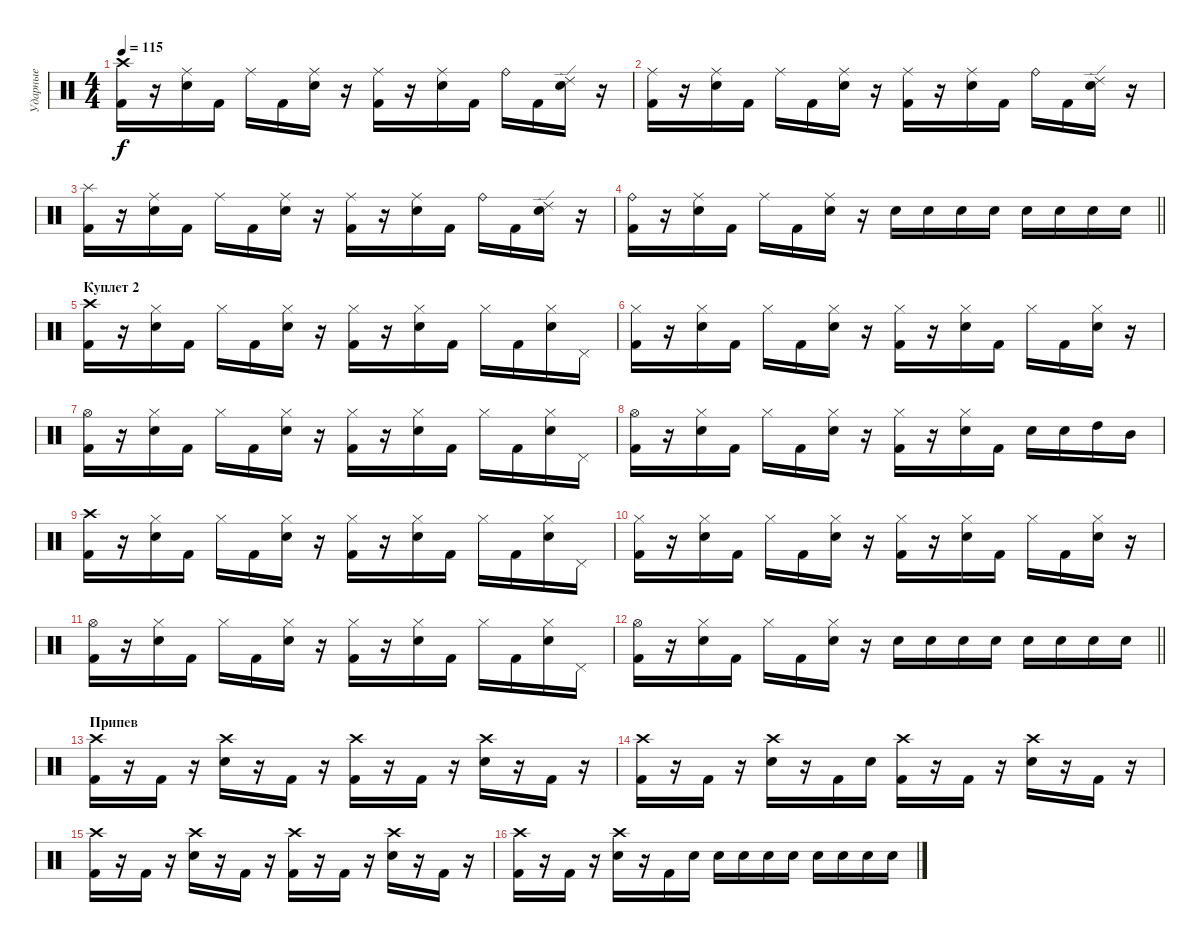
\track ("Ударные" "Ударные") {instrument percussion}
\staff {score}
\articulation defaults
\ts (4 4)
\tempo 115
\clef neutral
\ks c
("Kick (hit) 2" "Crash high (hit)").16{dy f} r.16 ("Electric Snare (hit)" "Ride (middle)").16 "Kick (hit) 2".16 "Ride (middle)".16 "Kick (hit) 2".16 ("Electric Snare (hit)" "Ride (middle)").16 r.16 ("Kick (hit) 2" "Ride (middle)").16 r.16 ("Electric Snare (hit)" "Ride (middle)").16 "Kick (hit) 2".16 "Ride (bell)".16 "Kick (hit) 2".16 ("Electric Snare (hit)" "Ride (edge) 2").16 r.16 |
("Kick (hit) 2" "Ride (middle)").16 r.16 ("Electric Snare (hit)" "Ride (middle)").16 "Kick (hit) 2".16 "Ride (middle)".16 "Kick (hit) 2".16 ("Electric Snare (hit)" "Ride (middle)").16 r.16 ("Kick (hit) 2" "Ride (middle)").16 r.16 ("Electric Snare (hit)" "Ride (middle)").16 "Kick (hit) 2".16 "Ride (bell)".16 "Kick (hit) 2".16 ("Electric Snare (hit)" "Ride (edge) 2").16 r.16 |
("Kick (hit) 2" "Splash (hit)").16 r.16 ("Electric Snare (hit)" "Ride (middle)").16 "Kick (hit) 2".16 "Ride (middle)".16 "Kick (hit) 2".16 ("Electric Snare (hit)" "Ride (middle)").16 r.16 ("Kick (hit) 2" "Ride (middle)").16 r.16 ("Electric Snare (hit)" "Ride (middle)").16 "Kick (hit) 2".16 "Ride (bell)".16 "Kick (hit) 2".16 ("Electric Snare (hit)" "Ride (edge) 2").16 r.16 |
\barLineRight lightlight
("Kick (hit) 2" "Ride (bell)").16 r.16 ("Electric Snare (hit)" "Ride (middle)").16 "Kick (hit) 2".16 "Ride (middle)".16 "Kick (hit) 2".16 ("Electric Snare (hit)" "Ride (middle)").16 r.16 "Electric Snare (hit)".16 "Electric Snare (hit)".16 "Electric Snare (hit)".16 "Electric Snare (hit)".16 "Electric Snare (hit)".16 "Electric Snare (hit)".16 "Electric Snare (hit)".16 "Electric Snare (hit)".16 |
\section ("" "Куплет 2")
("Kick (hit) 2" "Crash high (hit)").16 r.16 ("Electric Snare (hit)" "Hi-Hat (closed)").16 "Kick (hit) 2".16 "Hi-Hat (closed)".16 "Kick (hit) 2".16 ("Electric Snare (hit)" "Hi-Hat (closed)").16 r.16 ("Kick (hit) 2" "Hi-Hat (closed)").16 r.16 ("Electric Snare (hit)" "Hi-Hat (closed)").16 "Kick (hit) 2".16 "Hi-Hat (closed)".16 "Kick (hit) 2".16 ("Electric Snare (hit)" "Hi-Hat (closed)").16 "Pedal Hi-Hat (hit)".16 |
("Kick (hit) 2" "Hi-Hat (closed)").16 r.16 ("Electric Snare (hit)" "Hi-Hat (closed)").16 "Kick (hit) 2".16 "Hi-Hat (closed)".16 "Kick (hit) 2".16 ("Electric Snare (hit)" "Hi-Hat (closed)").16 r.16 ("Kick (hit) 2" "Hi-Hat (closed)").16 r.16 ("Electric Snare (hit)" "Hi-Hat (closed)").16 "Kick (hit) 2".16 "Hi-Hat (closed)".16 "Kick (hit) 2".16 ("Electric Snare (hit)" "Hi-Hat (closed)").16 r.16 |
("Kick (hit) 2" "Hi-Hat (open)").16 r.16 ("Electric Snare (hit)" "Hi-Hat (closed)").16 "Kick (hit) 2".16 "Hi-Hat (closed)".16 "Kick (hit) 2".16 ("Electric Snare (hit)" "Hi-Hat (closed)").16 r.16 ("Kick (hit) 2" "Hi-Hat (closed)").16 r.16 ("Electric Snare (hit)" "Hi-Hat (closed)").16 "Kick (hit) 2".16 "Hi-Hat (closed)".16 "Kick (hit) 2".16 ("Electric Snare (hit)" "Hi-Hat (closed)").16 "Pedal Hi-Hat (hit)".16 |
("Kick (hit) 2" "Hi-Hat (open)").16 r.16 ("Electric Snare (hit)" "Hi-Hat (closed)").16 "Kick (hit) 2".16 "Hi-Hat (closed)".16 "Kick (hit) 2".16 ("Electric Snare (hit)" "Hi-Hat (closed)").16 r.16 ("Kick (hit) 2" "Hi-Hat (closed)").16 r.16 ("Electric Snare (hit)" "Hi-Hat (closed)").16 "Kick (hit) 2".16 "Electric Snare (hit)".16 "Electric Snare (hit)".16 "High Tom (hit)".16 "Mid Tom (hit)".16 |
("Kick (hit) 2" "Crash high (hit)").16 r.16 ("Electric Snare (hit)" "Hi-Hat (closed)").16 "Kick (hit) 2".16 "Hi-Hat (closed)".16 "Kick (hit) 2".16 ("Electric Snare (hit)" "Hi-Hat (closed)").16 r.16 ("Kick (hit) 2" "Hi-Hat (closed)").16 r.16 ("Electric Snare (hit)" "Hi-Hat (closed)").16 "Kick (hit) 2".16 "Hi-Hat (closed)".16 "Kick (hit) 2".16 ("Electric Snare (hit)" "Hi-Hat (closed)").16 "Pedal Hi-Hat (hit)".16 |
("Kick (hit) 2" "Hi-Hat (closed)").16 r.16 ("Electric Snare (hit)" "Hi-Hat (closed)").16 "Kick (hit) 2".16 "Hi-Hat (closed)".16 "Kick (hit) 2".16 ("Electric Snare (hit)" "Hi-Hat (closed)").16 r.16 ("Kick (hit) 2" "Hi-Hat (closed)").16 r.16 ("Electric Snare (hit)" "Hi-Hat (closed)").16 "Kick (hit) 2".16 "Hi-Hat (closed)".16 "Kick (hit) 2".16 ("Electric Snare (hit)" "Hi-Hat (closed)").16 r.16 |
("Kick (hit) 2" "Hi-Hat (open)").16 r.16 ("Electric Snare (hit)" "Hi-Hat (closed)").16 "Kick (hit) 2".16 "Hi-Hat (closed)".16 "Kick (hit) 2".16 ("Electric Snare (hit)" "Hi-Hat (closed)").16 r.16 ("Kick (hit) 2" "Hi-Hat (closed)").16 r.16 ("Electric Snare (hit)" "Hi-Hat (closed)").16 "Kick (hit) 2".16 "Hi-Hat (closed)".16 "Kick (hit) 2".16 ("Electric Snare (hit)" "Hi-Hat (closed)").16 "Pedal Hi-Hat (hit)".16 |
\barLineRight lightlight
("Kick (hit) 2" "Hi-Hat (open)").16 r.16 ("Electric Snare (hit)" "Hi-Hat (closed)").16 "Kick (hit) 2".16 "Hi-Hat (closed)".16 "Kick (hit) 2".16 ("Electric Snare (hit)" "Hi-Hat (closed)").16 r.16 "Electric Snare (hit)".16 "Electric Snare (hit)".16 "Electric Snare (hit)".16 "Electric Snare (hit)".16 "Electric Snare (hit)".16 "Electric Snare (hit)".16 "Electric Snare (hit)".16 "Electric Snare (hit)".16 |
\section ("" "Припев")
("Kick (hit) 2" "Crash high (hit)").16 r.16 "Kick (hit) 2".16 r.16 ("Snare (hit) 2" "Crash high (hit)").16 r.16 "Kick (hit) 2".16 r.16 ("Kick (hit) 2" "Crash high (hit)").16 r.16 "Kick (hit) 2".16 r.16 ("Snare (hit) 2" "Crash high (hit)").16 r.16 "Kick (hit) 2".16 r.16 |
("Kick (hit) 2" "Crash high (hit)").16 r.16 "Kick (hit) 2".16 r.16 ("Snare (hit) 2" "Crash high (hit)").16 r.16 "Kick (hit) 2".16 "Electric Snare (hit)".16 ("Kick (hit) 2" "Crash high (hit)").16 r.16 "Kick (hit) 2".16 r.16 ("Snare (hit) 2" "Crash high (hit)").16 r.16 "Kick (hit) 2".16 r.16 |
("Kick (hit) 2" "Crash high (hit)").16 r.16 "Kick (hit) 2".16 r.16 ("Snare (hit) 2" "Crash high (hit)").16 r.16 "Kick (hit) 2".16 r.16 ("Kick (hit) 2" "Crash high (hit)").16 r.16 "Kick (hit) 2".16 r.16 ("Snare (hit) 2" "Crash high (hit)").16 r.16 "Kick (hit) 2".16 r.16 |
("Kick (hit) 2" "Crash high (hit)").16 r.16 "Kick (hit) 2".16 r.16 ("Snare (hit) 2" "Crash high (hit)").16 r.16 "Kick (hit) 2".16 "Electric Snare (hit)".16 "Electric Snare (hit)".16 "Electric Snare (hit)".16 "Electric Snare (hit)".16 "Electric Snare (hit)".16 "Electric Snare (hit)".16 "Electric Snare (hit)".16 "Electric Snare (hit)".16 "Electric Snare (hit)".16
